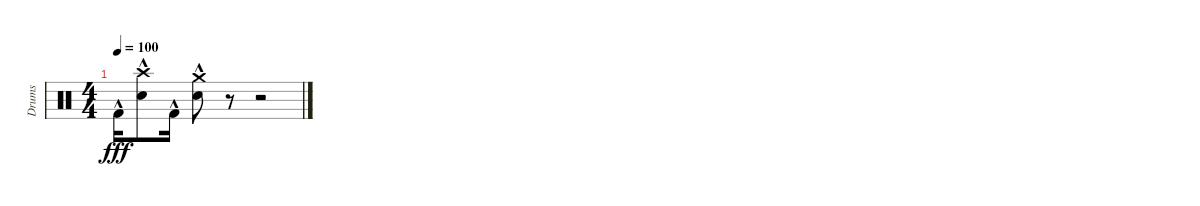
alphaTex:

\track ("Drums" "Drums") {instrument percussion}
\staff {score}
\articulation defaults
\ts (4 4)
\tempo 100
\clef neutral
\ks c "Kick (hit) 2"{hac}.16{dy fff}
("Crash high (hit)"{hac} "Snare (hit) 2"{hac}).8 "Kick (hit) 2"{hac}.16 ("Crash medium (hit)"{hac} "Snare (hit) 2"{hac}).8 r.8 r.2
